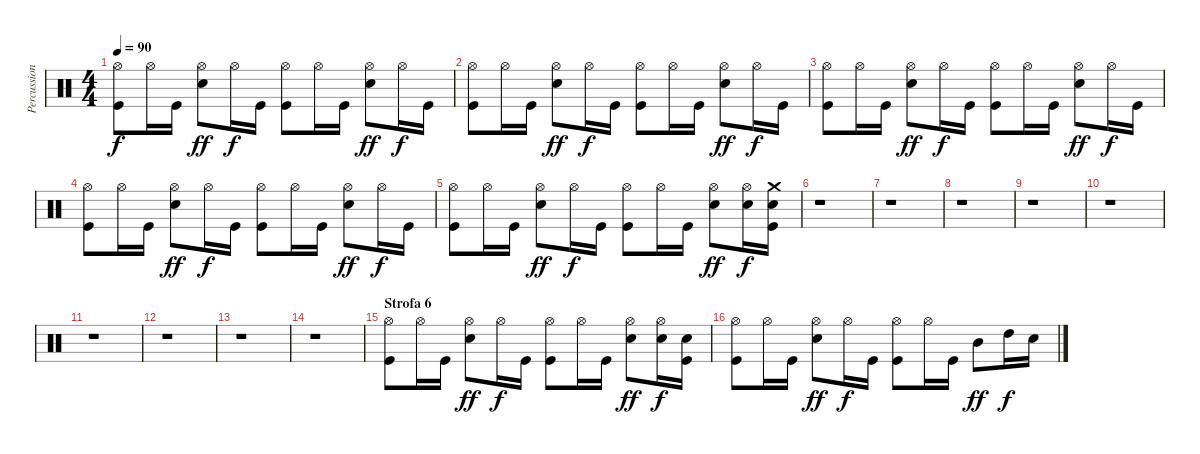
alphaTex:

\track ("Percussioni" "Percussion") {instrument percussion}
\staff {score}
\articulation defaults
\ts (4 4)
\tempo 90
\clef neutral
\ks c
("Hi-Hat (open)" "Kick (hit)").8{dy f} "Hi-Hat (open)".16 "Kick (hit)".16 ("Hi-Hat (open)" "Electric Snare (hit)").8{dy ff} "Hi-Hat (open)".16{dy f} "Kick (hit)".16 ("Hi-Hat (open)" "Kick (hit)").8 "Hi-Hat (open)".16 "Kick (hit)".16 ("Hi-Hat (open)" "Electric Snare (hit)").8{dy ff} "Hi-Hat (open)".16{dy f} "Kick (hit)".16 |
("Hi-Hat (open)" "Kick (hit)").8 "Hi-Hat (open)".16 "Kick (hit)".16 ("Hi-Hat (open)" "Electric Snare (hit)").8{dy ff} "Hi-Hat (open)".16{dy f} "Kick (hit)".16 ("Hi-Hat (open)" "Kick (hit)").8 "Hi-Hat (open)".16 "Kick (hit)".16 ("Hi-Hat (open)" "Electric Snare (hit)").8{dy ff} "Hi-Hat (open)".16{dy f} "Kick (hit)".16 |
("Hi-Hat (open)" "Kick (hit)").8 "Hi-Hat (open)".16 "Kick (hit)".16 ("Hi-Hat (open)" "Electric Snare (hit)").8{dy ff} "Hi-Hat (open)".16{dy f} "Kick (hit)".16 ("Hi-Hat (open)" "Kick (hit)").8 "Hi-Hat (open)".16 "Kick (hit)".16 ("Hi-Hat (open)" "Electric Snare (hit)").8{dy ff} "Hi-Hat (open)".16{dy f} "Kick (hit)".16 |
("Hi-Hat (open)" "Kick (hit)").8 "Hi-Hat (open)".16 "Kick (hit)".16 ("Hi-Hat (open)" "Electric Snare (hit)").8{dy ff} "Hi-Hat (open)".16{dy f} "Kick (hit)".16 ("Hi-Hat (open)" "Kick (hit)").8 "Hi-Hat (open)".16 "Kick (hit)".16 ("Hi-Hat (open)" "Electric Snare (hit)").8{dy ff} "Hi-Hat (open)".16{dy f} "Kick (hit)".16 |
("Hi-Hat (open)" "Kick (hit)").8 "Hi-Hat (open)".16 "Kick (hit)".16 ("Hi-Hat (open)" "Electric Snare (hit)").8{dy ff} "Hi-Hat (open)".16{dy f} "Kick (hit)".16 ("Hi-Hat (open)" "Kick (hit)").8 "Hi-Hat (open)".16 "Kick (hit)".16 ("Hi-Hat (open)" "Electric Snare (hit)").8{dy ff} ("Hi-Hat (open)" "Electric Snare (hit)").16{dy f} ("Crash medium (hit)" "Electric Snare (hit)" "Kick (hit)").16 |
r.1 |
r.1 |
r.1 |
r.1 |
r.1 |
r.1 |
r.1 |
r.1 |
r.1 |
\section ("" "Strofa 6")
("Hi-Hat (open)" "Kick (hit)").8 "Hi-Hat (open)".16 "Kick (hit)".16 ("Hi-Hat (open)" "Electric Snare (hit)").8{dy ff} "Hi-Hat (open)".16{dy f} "Kick (hit)".16 ("Hi-Hat (open)" "Kick (hit)").8 "Hi-Hat (open)".16 "Kick (hit)".16 ("Hi-Hat (open)" "Electric Snare (hit)").8{dy ff} ("Hi-Hat (open)" "Electric Snare (hit)").16{dy f} ("Electric Snare (hit)" "Kick (hit)").16 |
("Hi-Hat (open)" "Kick (hit)").8 "Hi-Hat (open)".16 "Kick (hit)".16 ("Hi-Hat (open)" "Electric Snare (hit)").8{dy ff} "Hi-Hat (open)".16{dy f} "Kick (hit)".16 ("Hi-Hat (open)" "Kick (hit)").8 "Hi-Hat (open)".16 "Kick (hit)".16 "Mid Tom (hit)".8{dy ff} "High Tom (hit)".16{dy f} "Electric Snare (hit)".16
